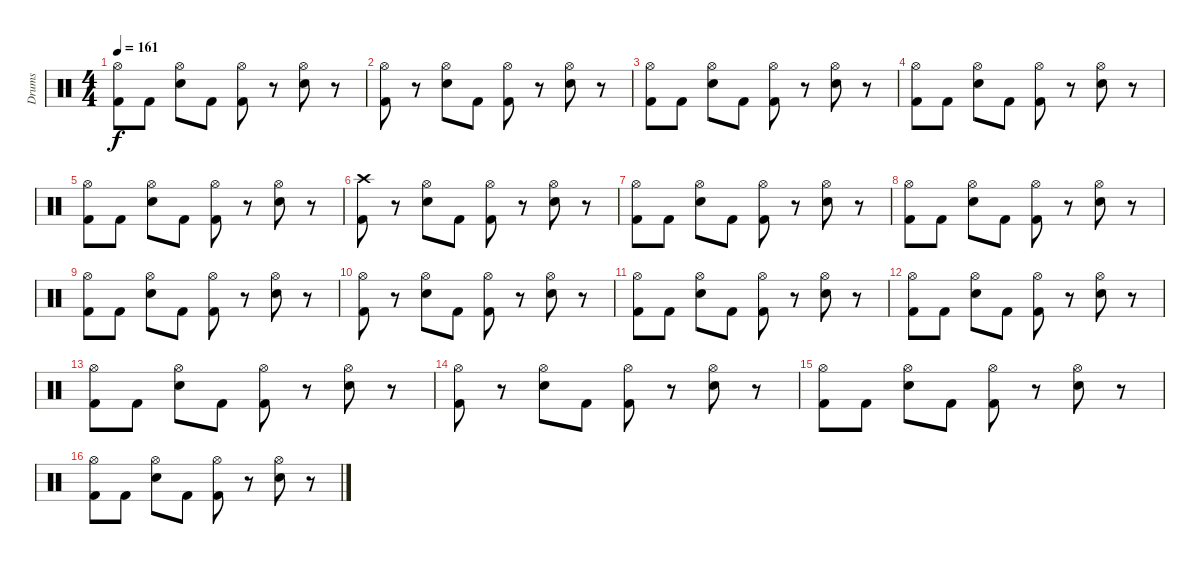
\track ("Drums" "Drums") {instrument percussion}
\staff {score}
\articulation defaults
\ts (4 4)
\tempo 161
\clef neutral
\ks c
("Hi-Hat (open)" "Kick (hit) 2").8{dy f} "Kick (hit) 2".8 ("Hi-Hat (open)" "Snare (hit) 2").8 "Kick (hit) 2".8 ("Hi-Hat (open)" "Kick (hit) 2").8 r.8 ("Hi-Hat (open)" "Snare (hit) 2").8 r.8 |
("Hi-Hat (open)" "Kick (hit) 2").8 r.8 ("Hi-Hat (open)" "Snare (hit) 2").8 "Kick (hit) 2".8 ("Hi-Hat (open)" "Kick (hit) 2").8 r.8 ("Hi-Hat (open)" "Snare (hit) 2").8 r.8 |
("Hi-Hat (open)" "Kick (hit) 2").8 "Kick (hit) 2".8 ("Hi-Hat (open)" "Snare (hit) 2").8 "Kick (hit) 2".8 ("Hi-Hat (open)" "Kick (hit) 2").8 r.8 ("Hi-Hat (open)" "Snare (hit) 2").8 r.8 |
("Hi-Hat (open)" "Kick (hit) 2").8 "Kick (hit) 2".8 ("Hi-Hat (open)" "Snare (hit) 2").8 "Kick (hit) 2".8 ("Hi-Hat (open)" "Kick (hit) 2").8 r.8 ("Hi-Hat (open)" "Snare (hit) 2").8 r.8 |
("Hi-Hat (open)" "Kick (hit) 2").8 "Kick (hit) 2".8 ("Hi-Hat (open)" "Snare (hit) 2").8 "Kick (hit) 2".8 ("Hi-Hat (open)" "Kick (hit) 2").8 r.8 ("Hi-Hat (open)" "Snare (hit) 2").8 r.8 |
("Crash high (hit)" "Kick (hit) 2").8 r.8 ("Hi-Hat (open)" "Snare (hit) 2").8 "Kick (hit) 2".8 ("Hi-Hat (open)" "Kick (hit) 2").8 r.8 ("Hi-Hat (open)" "Snare (hit) 2").8 r.8 |
("Hi-Hat (open)" "Kick (hit) 2").8 "Kick (hit) 2".8 ("Hi-Hat (open)" "Snare (hit) 2").8 "Kick (hit) 2".8 ("Hi-Hat (open)" "Kick (hit) 2").8 r.8 ("Hi-Hat (open)" "Snare (hit) 2").8 r.8 |
("Hi-Hat (open)" "Kick (hit) 2").8 "Kick (hit) 2".8 ("Hi-Hat (open)" "Snare (hit) 2").8 "Kick (hit) 2".8 ("Hi-Hat (open)" "Kick (hit) 2").8 r.8 ("Hi-Hat (open)" "Snare (hit) 2").8 r.8 |
("Hi-Hat (open)" "Kick (hit) 2").8 "Kick (hit) 2".8 ("Hi-Hat (open)" "Snare (hit) 2").8 "Kick (hit) 2".8 ("Hi-Hat (open)" "Kick (hit) 2").8 r.8 ("Hi-Hat (open)" "Snare (hit) 2").8 r.8 |
("Hi-Hat (open)" "Kick (hit) 2").8 r.8 ("Hi-Hat (open)" "Snare (hit) 2").8 "Kick (hit) 2".8 ("Hi-Hat (open)" "Kick (hit) 2").8 r.8 ("Hi-Hat (open)" "Snare (hit) 2").8 r.8 |
("Hi-Hat (open)" "Kick (hit) 2").8 "Kick (hit) 2".8 ("Hi-Hat (open)" "Snare (hit) 2").8 "Kick (hit) 2".8 ("Hi-Hat (open)" "Kick (hit) 2").8 r.8 ("Hi-Hat (open)" "Snare (hit) 2").8 r.8 |
("Hi-Hat (open)" "Kick (hit) 2").8 "Kick (hit) 2".8 ("Hi-Hat (open)" "Snare (hit) 2").8 "Kick (hit) 2".8 ("Hi-Hat (open)" "Kick (hit) 2").8 r.8 ("Hi-Hat (open)" "Snare (hit) 2").8 r.8 |
("Hi-Hat (open)" "Kick (hit) 2").8 "Kick (hit) 2".8 ("Hi-Hat (open)" "Snare (hit) 2").8 "Kick (hit) 2".8 ("Hi-Hat (open)" "Kick (hit) 2").8 r.8 ("Hi-Hat (open)" "Snare (hit) 2").8 r.8 |
("Hi-Hat (open)" "Kick (hit) 2").8 r.8 ("Hi-Hat (open)" "Snare (hit) 2").8 "Kick (hit) 2".8 ("Hi-Hat (open)" "Kick (hit) 2").8 r.8 ("Hi-Hat (open)" "Snare (hit) 2").8 r.8 |
("Hi-Hat (open)" "Kick (hit) 2").8 "Kick (hit) 2".8 ("Hi-Hat (open)" "Snare (hit) 2").8 "Kick (hit) 2".8 ("Hi-Hat (open)" "Kick (hit) 2").8 r.8 ("Hi-Hat (open)" "Snare (hit) 2").8 r.8 |
("Hi-Hat (open)" "Kick (hit) 2").8 "Kick (hit) 2".8 ("Hi-Hat (open)" "Snare (hit) 2").8 "Kick (hit) 2".8 ("Hi-Hat (open)" "Kick (hit) 2").8 r.8 ("Hi-Hat (open)" "Snare (hit) 2").8 r.8
